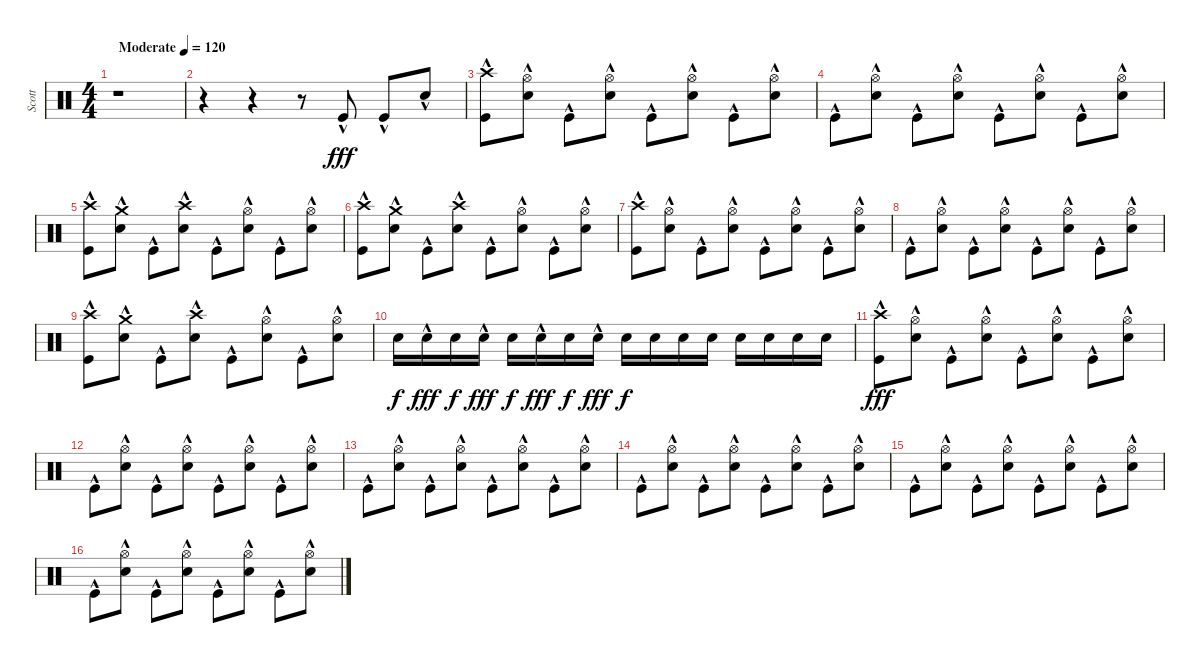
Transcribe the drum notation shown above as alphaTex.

\track ("Scott" "Scott") {instrument percussion}
\staff {score}
\articulation defaults
\ts (4 4)
\tempo (120 "Moderate")
\clef neutral
\ks c
r.1{dy fff} |
r.4 r.4 r.8 "Kick (hit)"{hac}.8 "Kick (hit)"{hac}.8 "Electric Snare (hit)"{hac}.8 |
("Crash high (hit)"{hac} "Kick (hit)"{hac}).8 ("Hi-Hat (open)"{hac} "Electric Snare (hit)"{hac}).8 "Kick (hit)"{hac}.8 ("Hi-Hat (open)"{hac} "Electric Snare (hit)"{hac}).8 "Kick (hit)"{hac}.8 ("Hi-Hat (open)"{hac} "Electric Snare (hit)"{hac}).8 "Kick (hit)"{hac}.8 ("Hi-Hat (open)"{hac} "Electric Snare (hit)"{hac}).8 |
"Kick (hit)"{hac}.8 ("Hi-Hat (open)"{hac} "Electric Snare (hit)"{hac}).8 "Kick (hit)"{hac}.8 ("Hi-Hat (open)"{hac} "Electric Snare (hit)"{hac}).8 "Kick (hit)"{hac}.8 ("Hi-Hat (open)"{hac} "Electric Snare (hit)"{hac}).8 "Kick (hit)"{hac}.8 ("Hi-Hat (open)"{hac} "Electric Snare (hit)"{hac}).8 |
("Crash high (hit)"{hac} "Kick (hit)"{hac}).8 ("Crash medium (hit)"{hac} "Electric Snare (hit)"{hac}).8 "Kick (hit)"{hac}.8 ("Crash high (hit)"{hac} "Electric Snare (hit)"{hac}).8 "Kick (hit)"{hac}.8 ("Hi-Hat (open)"{hac} "Electric Snare (hit)"{hac}).8 "Kick (hit)"{hac}.8 ("Hi-Hat (open)"{hac} "Electric Snare (hit)"{hac}).8 |
("Crash high (hit)"{hac} "Kick (hit)"{hac}).8 ("Crash medium (hit)"{hac} "Electric Snare (hit)"{hac}).8 "Kick (hit)"{hac}.8 ("Crash high (hit)"{hac} "Electric Snare (hit)"{hac}).8 "Kick (hit)"{hac}.8 ("Hi-Hat (open)"{hac} "Electric Snare (hit)"{hac}).8 "Kick (hit)"{hac}.8 ("Hi-Hat (open)"{hac} "Electric Snare (hit)"{hac}).8 |
("Crash high (hit)"{hac} "Kick (hit)"{hac}).8 ("Hi-Hat (open)"{hac} "Electric Snare (hit)"{hac}).8 "Kick (hit)"{hac}.8 ("Hi-Hat (open)"{hac} "Electric Snare (hit)"{hac}).8 "Kick (hit)"{hac}.8 ("Hi-Hat (open)"{hac} "Electric Snare (hit)"{hac}).8 "Kick (hit)"{hac}.8 ("Hi-Hat (open)"{hac} "Electric Snare (hit)"{hac}).8 |
"Kick (hit)"{hac}.8 ("Hi-Hat (open)"{hac} "Electric Snare (hit)"{hac}).8 "Kick (hit)"{hac}.8 ("Hi-Hat (open)"{hac} "Electric Snare (hit)"{hac}).8 "Kick (hit)"{hac}.8 ("Hi-Hat (open)"{hac} "Electric Snare (hit)"{hac}).8 "Kick (hit)"{hac}.8 ("Hi-Hat (open)"{hac} "Electric Snare (hit)"{hac}).8 |
("Crash high (hit)"{hac} "Kick (hit)"{hac}).8 ("Crash medium (hit)"{hac} "Electric Snare (hit)"{hac}).8 "Kick (hit)"{hac}.8 ("Crash high (hit)"{hac} "Electric Snare (hit)"{hac}).8 "Kick (hit)"{hac}.8 ("Hi-Hat (open)"{hac} "Electric Snare (hit)"{hac}).8 "Kick (hit)"{hac}.8 ("Hi-Hat (open)"{hac} "Electric Snare (hit)"{hac}).8 |
"Electric Snare (hit)".16{dy f} "Electric Snare (hit)"{hac}.16{dy fff} "Electric Snare (hit)".16{dy f} "Electric Snare (hit)"{hac}.16{dy fff} "Electric Snare (hit)".16{dy f} "Electric Snare (hit)"{hac}.16{dy fff} "Electric Snare (hit)".16{dy f} "Electric Snare (hit)"{hac}.16{dy fff} "Electric Snare (hit)".16{dy f} "Electric Snare (hit)".16 "Electric Snare (hit)".16 "Electric Snare (hit)".16 "Electric Snare (hit)".16 "Electric Snare (hit)".16 "Electric Snare (hit)".16 "Electric Snare (hit)".16 |
("Crash high (hit)"{hac} "Kick (hit)"{hac}).8{dy fff} ("Hi-Hat (open)"{hac} "Electric Snare (hit)"{hac}).8 "Kick (hit)"{hac}.8 ("Hi-Hat (open)"{hac} "Electric Snare (hit)"{hac}).8 "Kick (hit)"{hac}.8 ("Hi-Hat (open)"{hac} "Electric Snare (hit)"{hac}).8 "Kick (hit)"{hac}.8 ("Hi-Hat (open)"{hac} "Electric Snare (hit)"{hac}).8 |
"Kick (hit)"{hac}.8 ("Hi-Hat (open)"{hac} "Electric Snare (hit)"{hac}).8 "Kick (hit)"{hac}.8 ("Hi-Hat (open)"{hac} "Electric Snare (hit)"{hac}).8 "Kick (hit)"{hac}.8 ("Hi-Hat (open)"{hac} "Electric Snare (hit)"{hac}).8 "Kick (hit)"{hac}.8 ("Hi-Hat (open)"{hac} "Electric Snare (hit)"{hac}).8 |
"Kick (hit)"{hac}.8 ("Hi-Hat (open)"{hac} "Electric Snare (hit)"{hac}).8 "Kick (hit)"{hac}.8 ("Hi-Hat (open)"{hac} "Electric Snare (hit)"{hac}).8 "Kick (hit)"{hac}.8 ("Hi-Hat (open)"{hac} "Electric Snare (hit)"{hac}).8 "Kick (hit)"{hac}.8 ("Hi-Hat (open)"{hac} "Electric Snare (hit)"{hac}).8 |
"Kick (hit)"{hac}.8 ("Hi-Hat (open)"{hac} "Electric Snare (hit)"{hac}).8 "Kick (hit)"{hac}.8 ("Hi-Hat (open)"{hac} "Electric Snare (hit)"{hac}).8 "Kick (hit)"{hac}.8 ("Hi-Hat (open)"{hac} "Electric Snare (hit)"{hac}).8 "Kick (hit)"{hac}.8 ("Hi-Hat (open)"{hac} "Electric Snare (hit)"{hac}).8 |
"Kick (hit)"{hac}.8 ("Hi-Hat (open)"{hac} "Electric Snare (hit)"{hac}).8 "Kick (hit)"{hac}.8 ("Hi-Hat (open)"{hac} "Electric Snare (hit)"{hac}).8 "Kick (hit)"{hac}.8 ("Hi-Hat (open)"{hac} "Electric Snare (hit)"{hac}).8 "Kick (hit)"{hac}.8 ("Hi-Hat (open)"{hac} "Electric Snare (hit)"{hac}).8 |
"Kick (hit)"{hac}.8 ("Hi-Hat (open)"{hac} "Electric Snare (hit)"{hac}).8 "Kick (hit)"{hac}.8 ("Hi-Hat (open)"{hac} "Electric Snare (hit)"{hac}).8 "Kick (hit)"{hac}.8 ("Hi-Hat (open)"{hac} "Electric Snare (hit)"{hac}).8 "Kick (hit)"{hac}.8 ("Hi-Hat (open)"{hac} "Electric Snare (hit)"{hac}).8
